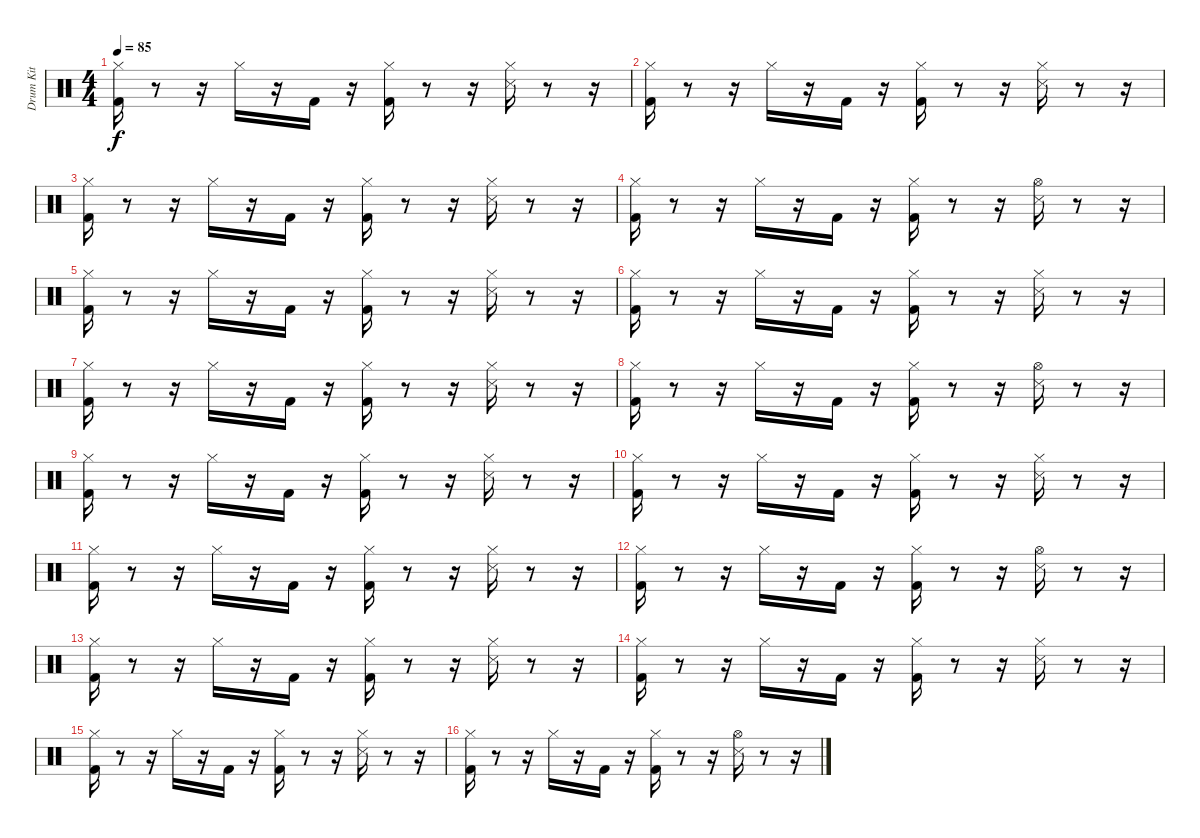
\track ("Drum Kit" "Drum Kit") {instrument percussion}
\staff {score}
\articulation defaults
\ts (4 4)
\tempo 85
\clef neutral
\ks c
("Kick (hit) 2" "Hi-Hat (closed)").16{dy f} r.8 r.16 "Hi-Hat (closed)".16 r.16 "Kick (hit) 2".16 r.16 ("Kick (hit) 2" "Hi-Hat (closed)").16 r.8 r.16 ("Snare (side stick) 3" "Hi-Hat (closed)").16 r.8 r.16 |
("Kick (hit) 2" "Hi-Hat (closed)").16 r.8 r.16 "Hi-Hat (closed)".16 r.16 "Kick (hit) 2".16 r.16 ("Kick (hit) 2" "Hi-Hat (closed)").16 r.8 r.16 ("Snare (side stick) 3" "Hi-Hat (closed)").16 r.8 r.16 |
("Kick (hit) 2" "Hi-Hat (closed)").16 r.8 r.16 "Hi-Hat (closed)".16 r.16 "Kick (hit) 2".16 r.16 ("Kick (hit) 2" "Hi-Hat (closed)").16 r.8 r.16 ("Snare (side stick) 3" "Hi-Hat (closed)").16 r.8 r.16 |
("Kick (hit) 2" "Hi-Hat (closed)").16 r.8 r.16 "Hi-Hat (closed)".16 r.16 "Kick (hit) 2".16 r.16 ("Kick (hit) 2" "Hi-Hat (closed)").16 r.8 r.16 ("Snare (side stick) 3" "Hi-Hat (open)").16 r.8 r.16 |
("Kick (hit) 2" "Hi-Hat (closed)").16 r.8 r.16 "Hi-Hat (closed)".16 r.16 "Kick (hit) 2".16 r.16 ("Kick (hit) 2" "Hi-Hat (closed)").16 r.8 r.16 ("Snare (side stick) 3" "Hi-Hat (closed)").16 r.8 r.16 |
("Kick (hit) 2" "Hi-Hat (closed)").16 r.8 r.16 "Hi-Hat (closed)".16 r.16 "Kick (hit) 2".16 r.16 ("Kick (hit) 2" "Hi-Hat (closed)").16 r.8 r.16 ("Snare (side stick) 3" "Hi-Hat (closed)").16 r.8 r.16 |
("Kick (hit) 2" "Hi-Hat (closed)").16 r.8 r.16 "Hi-Hat (closed)".16 r.16 "Kick (hit) 2".16 r.16 ("Kick (hit) 2" "Hi-Hat (closed)").16 r.8 r.16 ("Snare (side stick) 3" "Hi-Hat (closed)").16 r.8 r.16 |
("Kick (hit) 2" "Hi-Hat (closed)").16 r.8 r.16 "Hi-Hat (closed)".16 r.16 "Kick (hit) 2".16 r.16 ("Kick (hit) 2" "Hi-Hat (closed)").16 r.8 r.16 ("Snare (side stick) 3" "Hi-Hat (open)").16 r.8 r.16 |
("Kick (hit) 2" "Hi-Hat (closed)").16 r.8 r.16 "Hi-Hat (closed)".16 r.16 "Kick (hit) 2".16 r.16 ("Kick (hit) 2" "Hi-Hat (closed)").16 r.8 r.16 ("Snare (side stick) 3" "Hi-Hat (closed)").16 r.8 r.16 |
("Kick (hit) 2" "Hi-Hat (closed)").16 r.8 r.16 "Hi-Hat (closed)".16 r.16 "Kick (hit) 2".16 r.16 ("Kick (hit) 2" "Hi-Hat (closed)").16 r.8 r.16 ("Snare (side stick) 3" "Hi-Hat (closed)").16 r.8 r.16 |
("Kick (hit) 2" "Hi-Hat (closed)").16 r.8 r.16 "Hi-Hat (closed)".16 r.16 "Kick (hit) 2".16 r.16 ("Kick (hit) 2" "Hi-Hat (closed)").16 r.8 r.16 ("Snare (side stick) 3" "Hi-Hat (closed)").16 r.8 r.16 |
("Kick (hit) 2" "Hi-Hat (closed)").16 r.8 r.16 "Hi-Hat (closed)".16 r.16 "Kick (hit) 2".16 r.16 ("Kick (hit) 2" "Hi-Hat (closed)").16 r.8 r.16 ("Snare (side stick) 3" "Hi-Hat (open)").16 r.8 r.16 |
("Kick (hit) 2" "Hi-Hat (closed)").16 r.8 r.16 "Hi-Hat (closed)".16 r.16 "Kick (hit) 2".16 r.16 ("Kick (hit) 2" "Hi-Hat (closed)").16 r.8 r.16 ("Snare (side stick) 3" "Hi-Hat (closed)").16 r.8 r.16 |
("Kick (hit) 2" "Hi-Hat (closed)").16 r.8 r.16 "Hi-Hat (closed)".16 r.16 "Kick (hit) 2".16 r.16 ("Kick (hit) 2" "Hi-Hat (closed)").16 r.8 r.16 ("Snare (side stick) 3" "Hi-Hat (closed)").16 r.8 r.16 |
("Kick (hit) 2" "Hi-Hat (closed)").16 r.8 r.16 "Hi-Hat (closed)".16 r.16 "Kick (hit) 2".16 r.16 ("Kick (hit) 2" "Hi-Hat (closed)").16 r.8 r.16 ("Snare (side stick) 3" "Hi-Hat (closed)").16 r.8 r.16 |
("Kick (hit) 2" "Hi-Hat (closed)").16 r.8 r.16 "Hi-Hat (closed)".16 r.16 "Kick (hit) 2".16 r.16 ("Kick (hit) 2" "Hi-Hat (closed)").16 r.8 r.16 ("Snare (side stick) 3" "Hi-Hat (open)").16 r.8 r.16
